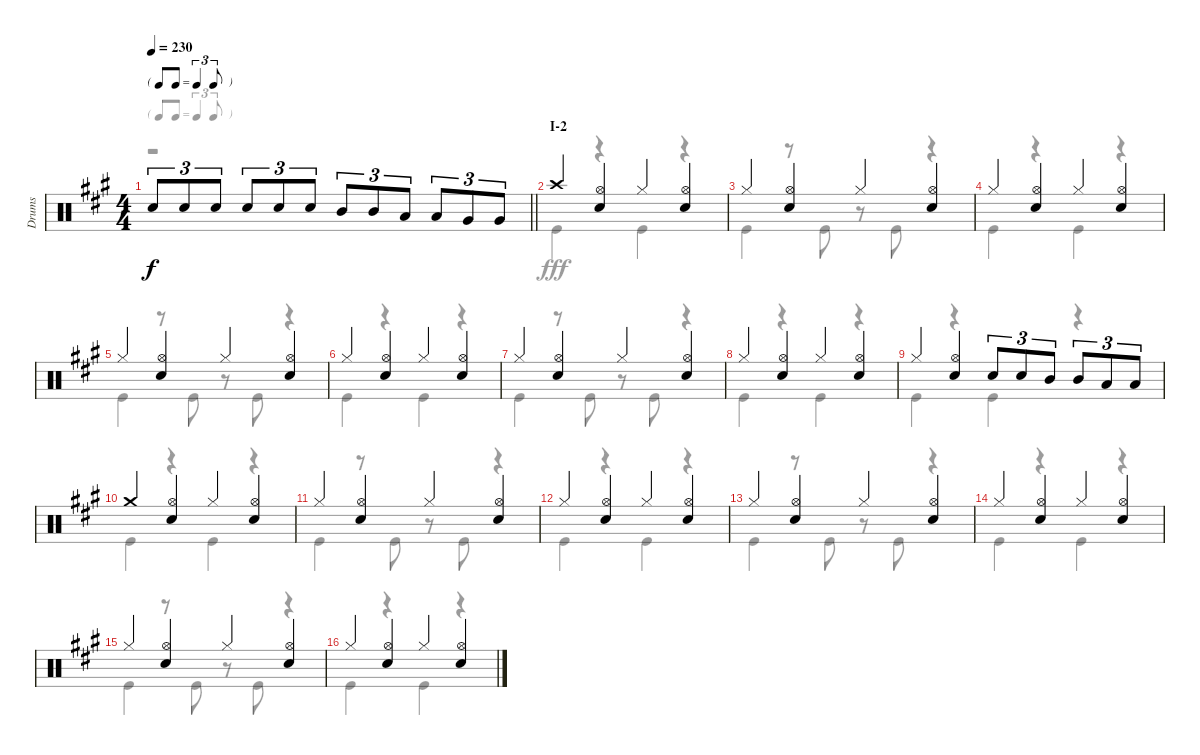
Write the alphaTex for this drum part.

\track ("Drums" "Drums") {instrument percussion}
\staff {score}
\articulation defaults
\voice
\ts (4 4)
\tf triplet8th
\tempo 230
\clef neutral
\barLineRight lightlight
\ks a "Snare (hit) 2".8{tu (3 2) dy f} "Snare (hit) 2".8{tu (3 2)} "Snare (hit) 2".8{tu (3 2)} "Snare (hit) 2".8{tu (3 2)} "Snare (hit) 2".8{tu (3 2)} "Snare (hit) 2".8{tu (3 2)} "Mid Tom (hit)".8{tu (3 2)} "Mid Tom (hit)".8{tu (3 2)} "Low Tom (hit)".8{tu (3 2)} "Low Tom (hit)".8{tu (3 2)} "Very Low Tom (hit)".8{tu (3 2)} "Very Low Tom (hit)".8{tu (3 2)}
|
\section ("" "I-2")
"Crash high (hit)".4 ("Hi-Hat (open)" "Snare (hit) 2").4 "Hi-Hat (closed)".4 ("Hi-Hat (open)" "Snare (hit) 2").4 |
"Hi-Hat (closed)".4 ("Hi-Hat (open)" "Snare (hit) 2").4 "Hi-Hat (closed)".4 ("Hi-Hat (open)" "Snare (hit) 2").4 |
"Hi-Hat (closed)".4 ("Hi-Hat (open)" "Snare (hit) 2").4 "Hi-Hat (closed)".4 ("Hi-Hat (open)" "Snare (hit) 2").4 |
"Hi-Hat (closed)".4 ("Hi-Hat (open)" "Snare (hit) 2").4 "Hi-Hat (closed)".4 ("Hi-Hat (open)" "Snare (hit) 2").4 |
"Hi-Hat (closed)".4 ("Hi-Hat (open)" "Snare (hit) 2").4 "Hi-Hat (closed)".4 ("Hi-Hat (open)" "Snare (hit) 2").4 |
"Hi-Hat (closed)".4 ("Hi-Hat (open)" "Snare (hit) 2").4 "Hi-Hat (closed)".4 ("Hi-Hat (open)" "Snare (hit) 2").4 |
"Hi-Hat (closed)".4 ("Hi-Hat (open)" "Snare (hit) 2").4 "Hi-Hat (closed)".4 ("Hi-Hat (open)" "Snare (hit) 2").4 |
"Hi-Hat (closed)".4 ("Hi-Hat (open)" "Snare (hit) 2").4 "Snare (hit) 2".8{tu (3 2)} "Snare (hit) 2".8{tu (3 2)} "Mid Tom (hit)".8{tu (3 2)} "Mid Tom (hit)".8{tu (3 2)} "Low Tom (hit)".8{tu (3 2)} "Low Tom (hit)".8{tu (3 2)} |
"Crash medium (hit)".4 ("Hi-Hat (open)" "Snare (hit) 2").4 "Hi-Hat (closed)".4 ("Hi-Hat (open)" "Snare (hit) 2").4 |
"Hi-Hat (closed)".4 ("Hi-Hat (open)" "Snare (hit) 2").4 "Hi-Hat (closed)".4 ("Hi-Hat (open)" "Snare (hit) 2").4 |
"Hi-Hat (closed)".4 ("Hi-Hat (open)" "Snare (hit) 2").4 "Hi-Hat (closed)".4 ("Hi-Hat (open)" "Snare (hit) 2").4 |
"Hi-Hat (closed)".4 ("Hi-Hat (open)" "Snare (hit) 2").4 "Hi-Hat (closed)".4 ("Hi-Hat (open)" "Snare (hit) 2").4 |
"Hi-Hat (closed)".4 ("Hi-Hat (open)" "Snare (hit) 2").4 "Hi-Hat (closed)".4 ("Hi-Hat (open)" "Snare (hit) 2").4 |
"Hi-Hat (closed)".4 ("Hi-Hat (open)" "Snare (hit) 2").4 "Hi-Hat (closed)".4 ("Hi-Hat (open)" "Snare (hit) 2").4 |
"Hi-Hat (closed)".4 ("Hi-Hat (open)" "Snare (hit) 2").4 "Hi-Hat (closed)".4 ("Hi-Hat (open)" "Snare (hit) 2").4
\voice
\clef neutral
\ottava regular
\simile none
\barLineRight lightlight
\ks a
r.1{dy fff} |
"Kick (hit)".4 r.4 "Kick (hit)".4 r.4 |
"Kick (hit)".4 r.8 "Kick (hit)".8 r.8 "Kick (hit)".8 r.4 |
"Kick (hit)".4 r.4 "Kick (hit)".4 r.4 |
"Kick (hit)".4 r.8 "Kick (hit)".8 r.8 "Kick (hit)".8 r.4 |
"Kick (hit)".4 r.4 "Kick (hit)".4 r.4 |
"Kick (hit)".4 r.8 "Kick (hit)".8 r.8 "Kick (hit)".8 r.4 |
"Kick (hit)".4 r.4 "Kick (hit)".4 r.4 |
"Kick (hit)".4 r.4 "Kick (hit)".4 r.4 |
"Kick (hit)".4 r.4 "Kick (hit)".4 r.4 |
"Kick (hit)".4 r.8 "Kick (hit)".8 r.8 "Kick (hit)".8 r.4 |
"Kick (hit)".4 r.4 "Kick (hit)".4 r.4 |
"Kick (hit)".4 r.8 "Kick (hit)".8 r.8 "Kick (hit)".8 r.4 |
"Kick (hit)".4 r.4 "Kick (hit)".4 r.4 |
"Kick (hit)".4 r.8 "Kick (hit)".8 r.8 "Kick (hit)".8 r.4 |
"Kick (hit)".4 r.4 "Kick (hit)".4 r.4
